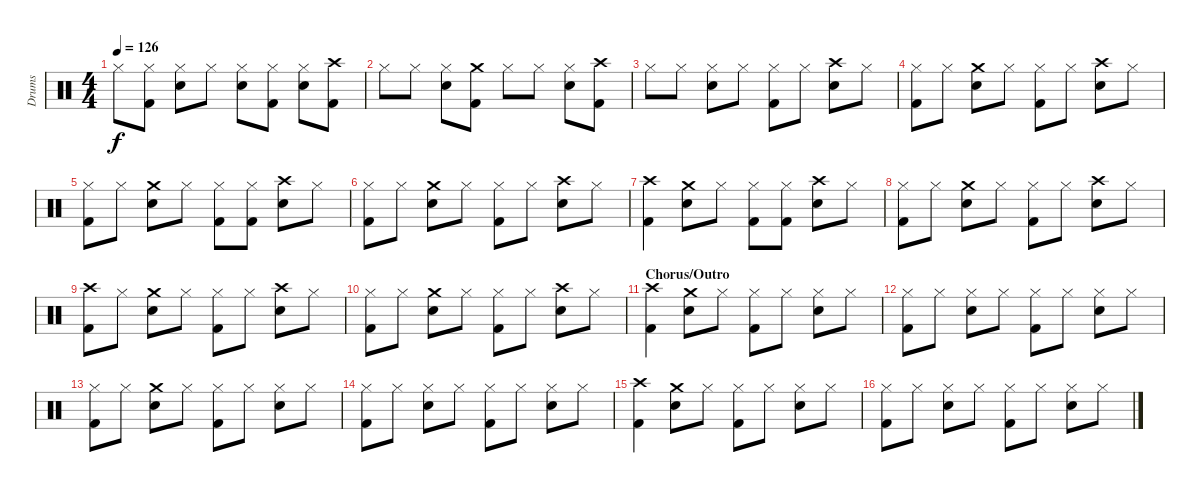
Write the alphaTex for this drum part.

\track ("Drums" "Drums") {instrument percussion}
\staff {score}
\articulation defaults
\ts (4 4)
\tempo 126
\clef neutral
\ks c "Hi-Hat (closed)".8{dy f}
("Hi-Hat (closed)" "Kick (hit) 2").8 ("Hi-Hat (closed)" "Snare (hit) 2").8 "Hi-Hat (closed)".8 ("Hi-Hat (closed)" "Snare (hit) 2").8 ("Hi-Hat (closed)" "Kick (hit) 2").8 ("Hi-Hat (closed)" "Snare (hit) 2").8 ("Crash high (hit)" "Kick (hit) 2").8 |
"Hi-Hat (closed)".8 "Hi-Hat (closed)".8 ("Hi-Hat (closed)" "Snare (hit) 2").8 ("Crash medium (hit)" "Kick (hit) 2").8 "Hi-Hat (closed)".8 "Hi-Hat (closed)".8 ("Hi-Hat (closed)" "Snare (hit) 2").8 ("Crash high (hit)" "Kick (hit) 2").8 |
"Hi-Hat (closed)".8 "Hi-Hat (closed)".8 ("Hi-Hat (closed)" "Snare (hit) 2").8 "Hi-Hat (closed)".8 ("Hi-Hat (closed)" "Kick (hit) 2").8 "Hi-Hat (closed)".8 ("Crash high (hit)" "Snare (hit) 2").8 "Hi-Hat (closed)".8 |
("Hi-Hat (closed)" "Kick (hit) 2").8 "Hi-Hat (closed)".8 ("Crash medium (hit)" "Snare (hit) 2").8 "Hi-Hat (closed)".8 ("Hi-Hat (closed)" "Kick (hit) 2").8 "Hi-Hat (closed)".8 ("Crash high (hit)" "Snare (hit) 2").8 "Hi-Hat (closed)".8 |
("Hi-Hat (closed)" "Kick (hit) 2").8 "Hi-Hat (closed)".8 ("Crash medium (hit)" "Snare (hit) 2").8 "Hi-Hat (closed)".8 ("Hi-Hat (closed)" "Kick (hit) 2").8 ("Hi-Hat (closed)" "Kick (hit) 2").8 ("Crash high (hit)" "Snare (hit) 2").8 "Hi-Hat (closed)".8 |
("Hi-Hat (closed)" "Kick (hit) 2").8 "Hi-Hat (closed)".8 ("Crash medium (hit)" "Snare (hit) 2").8 "Hi-Hat (closed)".8 ("Hi-Hat (closed)" "Kick (hit) 2").8 "Hi-Hat (closed)".8 ("Crash high (hit)" "Snare (hit) 2").8 "Hi-Hat (closed)".8 |
("Crash high (hit)" "Kick (hit) 2").4 ("Crash medium (hit)" "Snare (hit) 2").8 "Hi-Hat (closed)".8 ("Hi-Hat (closed)" "Kick (hit) 2").8 ("Hi-Hat (closed)" "Kick (hit) 2").8 ("Crash high (hit)" "Snare (hit) 2").8 "Hi-Hat (closed)".8 |
("Hi-Hat (closed)" "Kick (hit) 2").8 "Hi-Hat (closed)".8 ("Crash medium (hit)" "Snare (hit) 2").8 "Hi-Hat (closed)".8 ("Hi-Hat (closed)" "Kick (hit) 2").8 "Hi-Hat (closed)".8 ("Crash high (hit)" "Snare (hit) 2").8 "Hi-Hat (closed)".8 |
("Crash high (hit)" "Kick (hit) 2").8 "Hi-Hat (closed)".8 ("Crash medium (hit)" "Snare (hit) 2").8 "Hi-Hat (closed)".8 ("Hi-Hat (closed)" "Kick (hit) 2").8 "Hi-Hat (closed)".8 ("Crash high (hit)" "Snare (hit) 2").8 "Hi-Hat (closed)".8 |
("Hi-Hat (closed)" "Kick (hit) 2").8 "Hi-Hat (closed)".8 ("Crash medium (hit)" "Snare (hit) 2").8 "Hi-Hat (closed)".8 ("Hi-Hat (closed)" "Kick (hit) 2").8 "Hi-Hat (closed)".8 ("Crash high (hit)" "Snare (hit) 2").8 "Hi-Hat (closed)".8 |
\section ("" "Chorus/Outro")
("Crash high (hit)" "Kick (hit) 2").4 ("Crash medium (hit)" "Snare (hit) 2").8 "Hi-Hat (closed)".8 ("Hi-Hat (closed)" "Kick (hit) 2").8 "Hi-Hat (closed)".8 ("Hi-Hat (closed)" "Snare (hit) 2").8 "Hi-Hat (closed)".8 |
("Hi-Hat (closed)" "Kick (hit) 2").8 "Hi-Hat (closed)".8 ("Hi-Hat (closed)" "Snare (hit) 2").8 "Hi-Hat (closed)".8 ("Hi-Hat (closed)" "Kick (hit) 2").8 "Hi-Hat (closed)".8 ("Hi-Hat (closed)" "Snare (hit) 2").8 "Hi-Hat (closed)".8 |
("Hi-Hat (closed)" "Kick (hit) 2").8 "Hi-Hat (closed)".8 ("Crash medium (hit)" "Snare (hit) 2").8 "Hi-Hat (closed)".8 ("Hi-Hat (closed)" "Kick (hit) 2").8 "Hi-Hat (closed)".8 ("Hi-Hat (closed)" "Snare (hit) 2").8 "Hi-Hat (closed)".8 |
("Hi-Hat (closed)" "Kick (hit) 2").8 "Hi-Hat (closed)".8 ("Hi-Hat (closed)" "Snare (hit) 2").8 "Hi-Hat (closed)".8 ("Hi-Hat (closed)" "Kick (hit) 2").8 "Hi-Hat (closed)".8 ("Hi-Hat (closed)" "Snare (hit) 2").8 "Hi-Hat (closed)".8 |
("Crash high (hit)" "Kick (hit) 2").4 ("Crash medium (hit)" "Snare (hit) 2").8 "Hi-Hat (closed)".8 ("Hi-Hat (closed)" "Kick (hit) 2").8 "Hi-Hat (closed)".8 ("Hi-Hat (closed)" "Snare (hit) 2").8 "Hi-Hat (closed)".8 |
("Hi-Hat (closed)" "Kick (hit) 2").8 "Hi-Hat (closed)".8 ("Hi-Hat (closed)" "Snare (hit) 2").8 "Hi-Hat (closed)".8 ("Hi-Hat (closed)" "Kick (hit) 2").8 "Hi-Hat (closed)".8 ("Hi-Hat (closed)" "Snare (hit) 2").8 "Hi-Hat (closed)".8
